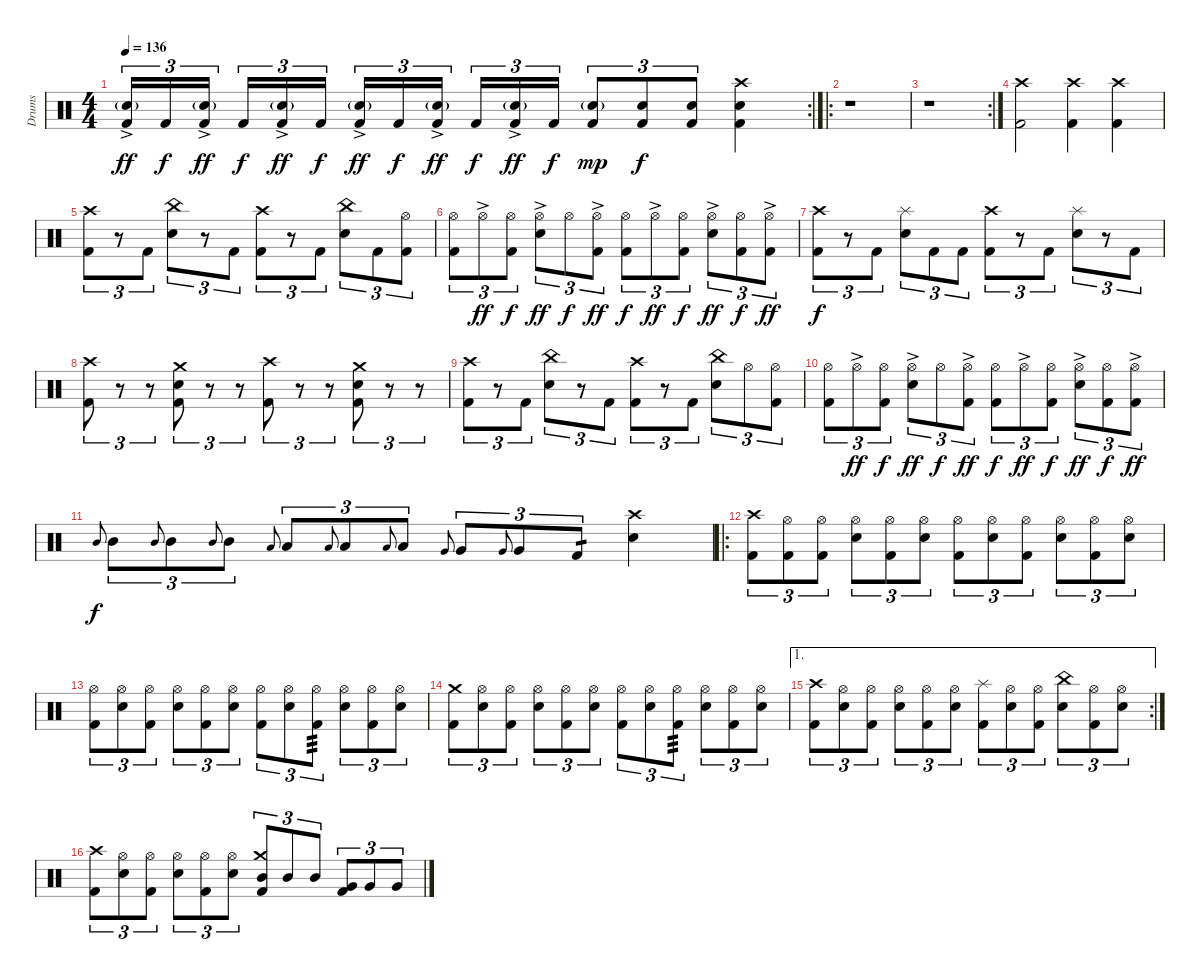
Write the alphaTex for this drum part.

\track ("Drums" "Drums") {instrument percussion}
\staff {score}
\articulation defaults
\rc 2
\ts (4 4)
\tempo 136
\clef neutral
\ks c
("Electric Snare (hit)"{g} "Kick (hit) 2"{ac}).16{tu (3 2) dy ff} "Kick (hit) 2".16{tu (3 2) dy f} ("Electric Snare (hit)"{g} "Kick (hit) 2"{ac}).16{tu (3 2) dy ff beam splitsecondary} "Kick (hit) 2".16{tu (3 2) dy f} ("Electric Snare (hit)"{g} "Kick (hit) 2"{ac}).16{tu (3 2) dy ff} "Kick (hit) 2".16{tu (3 2) dy f} ("Electric Snare (hit)"{g} "Kick (hit) 2"{ac}).16{tu (3 2) dy ff} "Kick (hit) 2".16{tu (3 2) dy f} ("Electric Snare (hit)"{g} "Kick (hit) 2"{ac}).16{tu (3 2) dy ff beam splitsecondary} "Kick (hit) 2".16{tu (3 2) dy f} ("Electric Snare (hit)"{g} "Kick (hit) 2"{ac}).16{tu (3 2) dy ff} "Kick (hit) 2".16{tu (3 2) dy f} ("Electric Snare (hit)"{g} "Kick (hit) 2").8{tu (3 2) dy mp} ("Electric Snare (hit)" "Kick (hit) 2").8{tu (3 2) dy f} ("Electric Snare (hit)" "Kick (hit) 2").8{tu (3 2)} ("Crash high (hit)" "Electric Snare (hit)" "Kick (hit) 2").4 |
\ro
r.1 |
\rc 2
r.1 |
("Crash high (hit)" "Kick (hit) 2").2 ("Crash high (hit)" "Kick (hit) 2").4 ("Crash high (hit)" "Kick (hit) 2").4 |
("Crash high (hit)" "Kick (hit) 2").8{tu (3 2)} r.8{tu (3 2)} "Kick (hit) 2".8{tu (3 2)} ("China (hit)" "Electric Snare (hit)").8{tu (3 2)} r.8{tu (3 2)} "Kick (hit) 2".8{tu (3 2)} ("Crash high (hit)" "Kick (hit) 2").8{tu (3 2)} r.8{tu (3 2)} "Kick (hit) 2".8{tu (3 2)} ("China (hit)" "Electric Snare (hit)").8{tu (3 2)} "Kick (hit) 2".8{tu (3 2)} ("Hi-Hat (open)" "Kick (hit) 2").8{tu (3 2)} |
("Hi-Hat (open)" "Kick (hit) 2").8{tu (3 2)} "Hi-Hat (open)"{ac}.8{tu (3 2) dy ff} ("Hi-Hat (open)" "Kick (hit) 2").8{tu (3 2) dy f} ("Hi-Hat (open)"{ac} "Electric Snare (hit)").8{tu (3 2) dy ff} "Hi-Hat (open)".8{tu (3 2) dy f} ("Hi-Hat (open)"{ac} "Kick (hit) 2").8{tu (3 2) dy ff} ("Hi-Hat (open)" "Kick (hit) 2").8{tu (3 2) dy f} "Hi-Hat (open)"{ac}.8{tu (3 2) dy ff} ("Hi-Hat (open)" "Kick (hit) 2").8{tu (3 2) dy f} ("Hi-Hat (open)"{ac} "Electric Snare (hit)").8{tu (3 2) dy ff} ("Hi-Hat (open)" "Kick (hit) 2").8{tu (3 2) dy f} ("Hi-Hat (open)"{ac} "Kick (hit) 2").8{tu (3 2) dy ff} |
("Crash high (hit)" "Kick (hit) 2").8{tu (3 2) dy f} r.8{tu (3 2)} "Kick (hit) 2".8{tu (3 2)} ("Splash (hit)" "Electric Snare (hit)").8{tu (3 2)} "Kick (hit) 2".8{tu (3 2)} "Kick (hit) 2".8{tu (3 2)} ("Crash high (hit)" "Kick (hit) 2").8{tu (3 2)} r.8{tu (3 2)} "Kick (hit) 2".8{tu (3 2)} ("Splash (hit)" "Electric Snare (hit)").8{tu (3 2)} r.8{tu (3 2)} "Kick (hit) 2".8{tu (3 2)} |
("Crash high (hit)" "Kick (hit) 2").8{tu (3 2)} r.8{tu (3 2)} r.8{tu (3 2)} ("Crash medium (hit)" "Electric Snare (hit)" "Kick (hit) 2").8{tu (3 2)} r.8{tu (3 2)} r.8{tu (3 2)} ("Crash high (hit)" "Kick (hit) 2").8{tu (3 2)} r.8{tu (3 2)} r.8{tu (3 2)} ("Crash medium (hit)" "Electric Snare (hit)" "Kick (hit) 2").8{tu (3 2)} r.8{tu (3 2)} r.8{tu (3 2)} |
("Crash high (hit)" "Kick (hit) 2").8{tu (3 2)} r.8{tu (3 2)} "Kick (hit) 2".8{tu (3 2)} ("China (hit)" "Electric Snare (hit)").8{tu (3 2)} r.8{tu (3 2)} "Kick (hit) 2".8{tu (3 2)} ("Crash high (hit)" "Kick (hit) 2").8{tu (3 2)} r.8{tu (3 2)} "Kick (hit) 2".8{tu (3 2)} ("China (hit)" "Electric Snare (hit)").8{tu (3 2)} "Hi-Hat (open)".8{tu (3 2)} ("Hi-Hat (open)" "Kick (hit) 2").8{tu (3 2)} |
("Hi-Hat (open)" "Kick (hit) 2").8{tu (3 2)} "Hi-Hat (open)"{ac}.8{tu (3 2) dy ff} ("Hi-Hat (open)" "Kick (hit) 2").8{tu (3 2) dy f} ("Hi-Hat (open)"{ac} "Electric Snare (hit)").8{tu (3 2) dy ff} "Hi-Hat (open)".8{tu (3 2) dy f} ("Hi-Hat (open)"{ac} "Kick (hit) 2").8{tu (3 2) dy ff} ("Hi-Hat (open)" "Kick (hit) 2").8{tu (3 2) dy f} "Hi-Hat (open)"{ac}.8{tu (3 2) dy ff} ("Hi-Hat (open)" "Kick (hit) 2").8{tu (3 2) dy f} ("Hi-Hat (open)"{ac} "Electric Snare (hit)").8{tu (3 2) dy ff} ("Hi-Hat (open)" "Kick (hit) 2").8{tu (3 2) dy f} ("Hi-Hat (open)"{ac} "Kick (hit) 2").8{tu (3 2) dy ff} |
"Mid Tom (hit)".8{gr onbeat dy f} "Mid Tom (hit)".8{tu (3 2)} "Mid Tom (hit)".8{gr onbeat} "Mid Tom (hit)".8{tu (3 2)} "Mid Tom (hit)".8{gr onbeat} "Mid Tom (hit)".8{tu (3 2)} "Low Tom (hit)".8{gr onbeat} "Low Tom (hit)".8{tu (3 2)} "Low Tom (hit)".8{gr onbeat} "Low Tom (hit)".8{tu (3 2)} "Low Tom (hit)".8{gr onbeat} "Low Tom (hit)".8{tu (3 2)} "Very Low Tom (hit)".8{gr onbeat} "Very Low Tom (hit)".8{tu (3 2)} "Very Low Tom (hit)".8{gr onbeat} "Very Low Tom (hit)".8{tu (3 2)} "Kick (hit) 2".8{tu (3 2) tp 1} ("Crash high (hit)" "Electric Snare (hit)").4 |
\ro
("Crash high (hit)" "Kick (hit) 2").8{tu (3 2)} ("Hi-Hat (open)" "Kick (hit) 2").8{tu (3 2)} ("Hi-Hat (open)" "Kick (hit) 2").8{tu (3 2)} ("Hi-Hat (open)" "Electric Snare (hit)").8{tu (3 2)} ("Hi-Hat (open)" "Kick (hit) 2").8{tu (3 2)} ("Hi-Hat (open)" "Electric Snare (hit)").8{tu (3 2)} ("Hi-Hat (open)" "Kick (hit) 2").8{tu (3 2)} ("Hi-Hat (open)" "Electric Snare (hit)").8{tu (3 2)} ("Hi-Hat (open)" "Kick (hit) 2").8{tu (3 2)} ("Hi-Hat (open)" "Electric Snare (hit)").8{tu (3 2)} ("Hi-Hat (open)" "Kick (hit) 2").8{tu (3 2)} ("Hi-Hat (open)" "Electric Snare (hit)").8{tu (3 2)} |
("Hi-Hat (open)" "Kick (hit) 2").8{tu (3 2)} ("Hi-Hat (open)" "Electric Snare (hit)").8{tu (3 2)} ("Hi-Hat (open)" "Kick (hit) 2").8{tu (3 2)} ("Hi-Hat (open)" "Electric Snare (hit)").8{tu (3 2)} ("Hi-Hat (open)" "Kick (hit) 2").8{tu (3 2)} ("Hi-Hat (open)" "Electric Snare (hit)").8{tu (3 2)} ("Hi-Hat (open)" "Kick (hit) 2").8{tu (3 2)} ("Hi-Hat (open)" "Electric Snare (hit)").8{tu (3 2)} ("Hi-Hat (open)" "Kick (hit) 2").8{tu (3 2) tp 3} ("Hi-Hat (open)" "Electric Snare (hit)").8{tu (3 2)} ("Hi-Hat (open)" "Kick (hit) 2").8{tu (3 2)} ("Hi-Hat (open)" "Electric Snare (hit)").8{tu (3 2)} |
("Crash medium (hit)" "Kick (hit) 2").8{tu (3 2)} ("Hi-Hat (open)" "Electric Snare (hit)").8{tu (3 2)} ("Hi-Hat (open)" "Kick (hit) 2").8{tu (3 2)} ("Hi-Hat (open)" "Electric Snare (hit)").8{tu (3 2)} ("Hi-Hat (open)" "Kick (hit) 2").8{tu (3 2)} ("Hi-Hat (open)" "Electric Snare (hit)").8{tu (3 2)} ("Hi-Hat (open)" "Kick (hit) 2").8{tu (3 2)} ("Hi-Hat (open)" "Electric Snare (hit)").8{tu (3 2)} ("Hi-Hat (open)" "Kick (hit) 2").8{tu (3 2) tp 3} ("Hi-Hat (open)" "Electric Snare (hit)").8{tu (3 2)} ("Hi-Hat (open)" "Kick (hit) 2").8{tu (3 2)} ("Hi-Hat (open)" "Electric Snare (hit)").8{tu (3 2)} |
\ae 1
\rc 2
("Crash high (hit)" "Kick (hit) 2").8{tu (3 2)} ("Hi-Hat (open)" "Electric Snare (hit)").8{tu (3 2)} ("Hi-Hat (open)" "Kick (hit) 2").8{tu (3 2)} ("Hi-Hat (open)" "Electric Snare (hit)").8{tu (3 2)} ("Hi-Hat (open)" "Kick (hit) 2").8{tu (3 2)} ("Hi-Hat (open)" "Electric Snare (hit)").8{tu (3 2)} ("Splash (hit)" "Kick (hit) 2").8{tu (3 2)} ("Hi-Hat (open)" "Electric Snare (hit)").8{tu (3 2)} ("Hi-Hat (open)" "Kick (hit) 2").8{tu (3 2)} ("China (hit)" "Electric Snare (hit)").8{tu (3 2)} ("Hi-Hat (open)" "Kick (hit) 2").8{tu (3 2)} ("Hi-Hat (open)" "Electric Snare (hit)").8{tu (3 2)} |
("Crash high (hit)" "Kick (hit) 2").8{tu (3 2)} ("Hi-Hat (open)" "Electric Snare (hit)").8{tu (3 2)} ("Hi-Hat (open)" "Kick (hit) 2").8{tu (3 2)} ("Hi-Hat (open)" "Electric Snare (hit)").8{tu (3 2)} ("Hi-Hat (open)" "Kick (hit) 2").8{tu (3 2)} ("Hi-Hat (open)" "Electric Snare (hit)").8{tu (3 2)} ("Crash medium (hit)" "Mid Tom (hit)" "Kick (hit) 2").8{tu (3 2)} "Mid Tom (hit)".8{tu (3 2)} "Mid Tom (hit)".8{tu (3 2)} ("Very Low Tom (hit)" "Kick (hit) 2").8{tu (3 2)} "Very Low Tom (hit)".8{tu (3 2)} "Very Low Tom (hit)".8{tu (3 2)}
